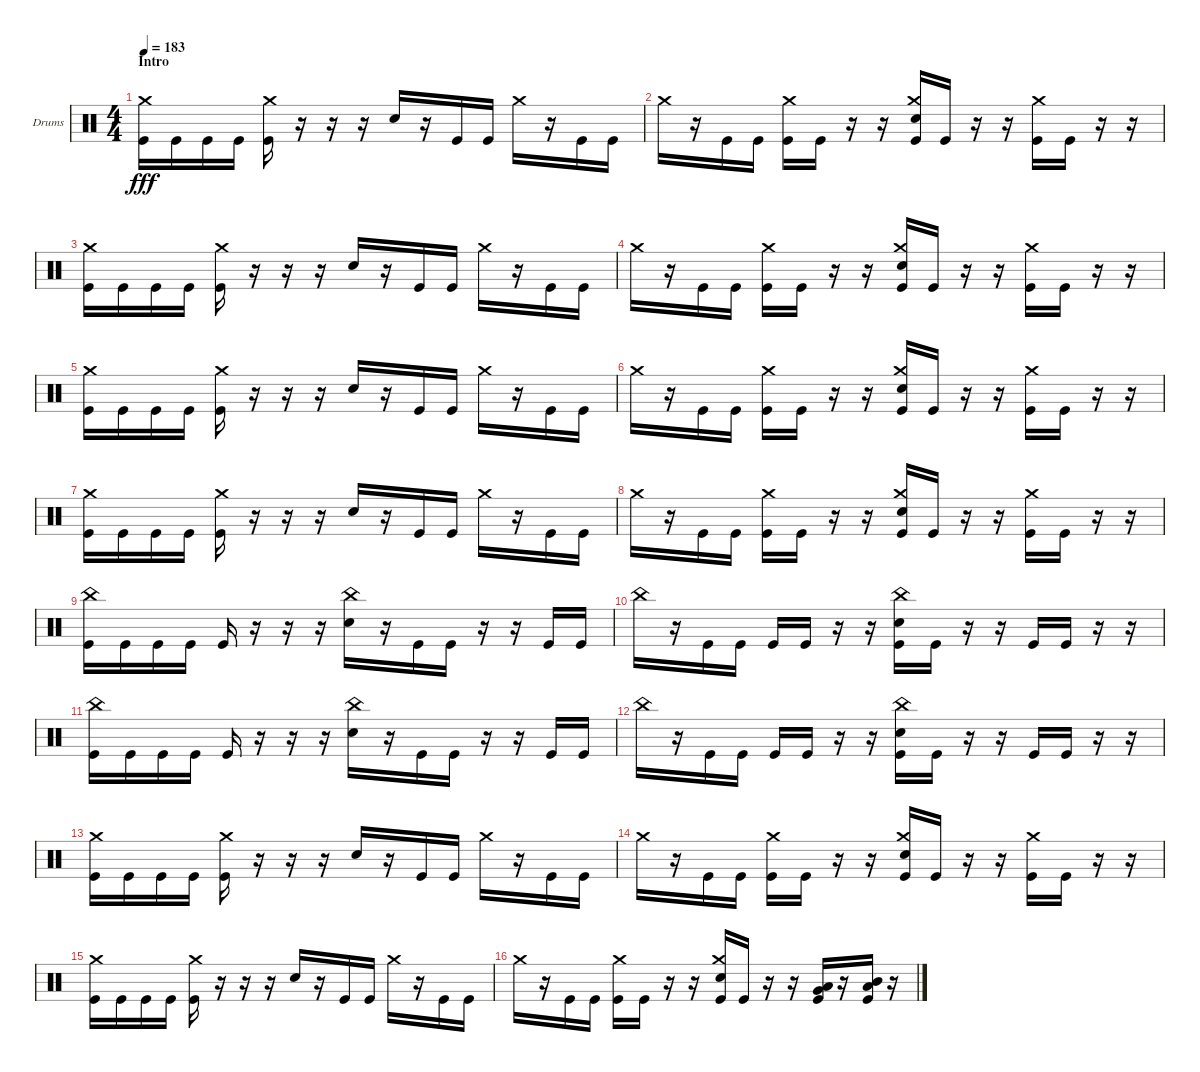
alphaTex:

\bracketExtendMode groupsimilarinstruments
\firstSystemTrackNameOrientation horizontal
\otherSystemsTrackNameOrientation horizontal
\track ("Drumkit" "Drums") {instrument percussion}
\staff {score}
\articulation defaults
\ts (4 4)
\section ("" "Intro")
\tempo 183
\clef neutral
\scale
0.333333
\ks c
("Kick (hit)" "Crash medium (hit)").16{dy fff} "Kick (hit)".16 "Kick (hit)".16 "Kick (hit)".16 ("Kick (hit)" "Crash medium (hit)").16 r.16 r.16 r.16 "Snare (hit) 2".16 r.16 "Kick (hit)".16 "Kick (hit)".16 "Crash medium (hit)".16 r.16 "Kick (hit)".16 "Kick (hit)".16 |
\scale
0.333333 "Crash medium (hit)".16 r.16 "Kick (hit)".16 "Kick (hit)".16 ("Kick (hit)" "Crash medium (hit)").16 "Kick (hit)".16 r.16 r.16 ("Kick (hit)" "Snare (hit) 2" "Crash medium (hit)").16 "Kick (hit)".16 r.16 r.16 ("Kick (hit)" "Crash medium (hit)").16 "Kick (hit)".16 r.16 r.16 |
\scale
0.333333 ("Kick (hit)" "Crash medium (hit)").16 "Kick (hit)".16 "Kick (hit)".16 "Kick (hit)".16 ("Kick (hit)" "Crash medium (hit)").16 r.16 r.16 r.16 "Snare (hit) 2".16 r.16 "Kick (hit)".16 "Kick (hit)".16 "Crash medium (hit)".16 r.16 "Kick (hit)".16 "Kick (hit)".16 |
\scale
0.333333 "Crash medium (hit)".16 r.16 "Kick (hit)".16 "Kick (hit)".16 ("Kick (hit)" "Crash medium (hit)").16 "Kick (hit)".16 r.16 r.16 ("Kick (hit)" "Snare (hit) 2" "Crash medium (hit)").16 "Kick (hit)".16 r.16 r.16 ("Kick (hit)" "Crash medium (hit)").16 "Kick (hit)".16 r.16 r.16 |
\scale
0.333333 ("Kick (hit)" "Crash medium (hit)").16 "Kick (hit)".16 "Kick (hit)".16 "Kick (hit)".16 ("Kick (hit)" "Crash medium (hit)").16 r.16 r.16 r.16 "Snare (hit) 2".16 r.16 "Kick (hit)".16 "Kick (hit)".16 "Crash medium (hit)".16 r.16 "Kick (hit)".16 "Kick (hit)".16 |
\scale
0.333333 "Crash medium (hit)".16 r.16 "Kick (hit)".16 "Kick (hit)".16 ("Kick (hit)" "Crash medium (hit)").16 "Kick (hit)".16 r.16 r.16 ("Kick (hit)" "Snare (hit) 2" "Crash medium (hit)").16 "Kick (hit)".16 r.16 r.16 ("Kick (hit)" "Crash medium (hit)").16 "Kick (hit)".16 r.16 r.16 |
\scale
0.333333 ("Kick (hit)" "Crash medium (hit)").16 "Kick (hit)".16 "Kick (hit)".16 "Kick (hit)".16 ("Kick (hit)" "Crash medium (hit)").16 r.16 r.16 r.16 "Snare (hit) 2".16 r.16 "Kick (hit)".16 "Kick (hit)".16 "Crash medium (hit)".16 r.16 "Kick (hit)".16 "Kick (hit)".16 |
\scale
0.333333 "Crash medium (hit)".16 r.16 "Kick (hit)".16 "Kick (hit)".16 ("Kick (hit)" "Crash medium (hit)").16 "Kick (hit)".16 r.16 r.16 ("Kick (hit)" "Snare (hit) 2" "Crash medium (hit)").16 "Kick (hit)".16 r.16 r.16 ("Kick (hit)" "Crash medium (hit)").16 "Kick (hit)".16 r.16 r.16 |
\scale
0.333333 ("Kick (hit)" "China (hit)").16 "Kick (hit)".16 "Kick (hit)".16 "Kick (hit)".16 "Kick (hit)".16 r.16 r.16 r.16 ("Snare (hit) 2" "China (hit)").16 r.16 "Kick (hit)".16 "Kick (hit)".16 r.16 r.16 "Kick (hit)".16 "Kick (hit)".16 |
\scale
0.333333 "China (hit)".16 r.16 "Kick (hit)".16 "Kick (hit)".16 "Kick (hit)".16 "Kick (hit)".16 r.16 r.16 ("Kick (hit)" "Snare (hit) 2" "China (hit)").16 "Kick (hit)".16 r.16 r.16 "Kick (hit)".16 "Kick (hit)".16 r.16 r.16 |
\scale
0.333333 ("Kick (hit)" "China (hit)").16 "Kick (hit)".16 "Kick (hit)".16 "Kick (hit)".16 "Kick (hit)".16 r.16 r.16 r.16 ("Snare (hit) 2" "China (hit)").16 r.16 "Kick (hit)".16 "Kick (hit)".16 r.16 r.16 "Kick (hit)".16 "Kick (hit)".16 |
\scale
0.333333 "China (hit)".16 r.16 "Kick (hit)".16 "Kick (hit)".16 "Kick (hit)".16 "Kick (hit)".16 r.16 r.16 ("Kick (hit)" "Snare (hit) 2" "China (hit)").16 "Kick (hit)".16 r.16 r.16 "Kick (hit)".16 "Kick (hit)".16 r.16 r.16 |
\scale
0.333333 ("Kick (hit)" "Crash medium (hit)").16 "Kick (hit)".16 "Kick (hit)".16 "Kick (hit)".16 ("Kick (hit)" "Crash medium (hit)").16 r.16 r.16 r.16 "Snare (hit) 2".16 r.16 "Kick (hit)".16 "Kick (hit)".16 "Crash medium (hit)".16 r.16 "Kick (hit)".16 "Kick (hit)".16 |
\scale
0.333333 "Crash medium (hit)".16 r.16 "Kick (hit)".16 "Kick (hit)".16 ("Kick (hit)" "Crash medium (hit)").16 "Kick (hit)".16 r.16 r.16 ("Kick (hit)" "Snare (hit) 2" "Crash medium (hit)").16 "Kick (hit)".16 r.16 r.16 ("Kick (hit)" "Crash medium (hit)").16 "Kick (hit)".16 r.16 r.16 |
\scale
0.333333 ("Kick (hit)" "Crash medium (hit)").16 "Kick (hit)".16 "Kick (hit)".16 "Kick (hit)".16 ("Kick (hit)" "Crash medium (hit)").16 r.16 r.16 r.16 "Snare (hit) 2".16 r.16 "Kick (hit)".16 "Kick (hit)".16 "Crash medium (hit)".16 r.16 "Kick (hit)".16 "Kick (hit)".16 |
\scale
0.333333 "Crash medium (hit)".16 r.16 "Kick (hit)".16 "Kick (hit)".16 ("Kick (hit)" "Crash medium (hit)").16 "Kick (hit)".16 r.16 r.16 ("Kick (hit)" "Snare (hit) 2" "Crash medium (hit)").16 "Kick (hit)".16 r.16 r.16 ("Kick (hit)" "Low Tom (hit)" "Very Low Tom (hit)").16 r.16 ("Kick (hit)" "Mid Tom (hit)" "Low Tom (hit)").16 r.16
